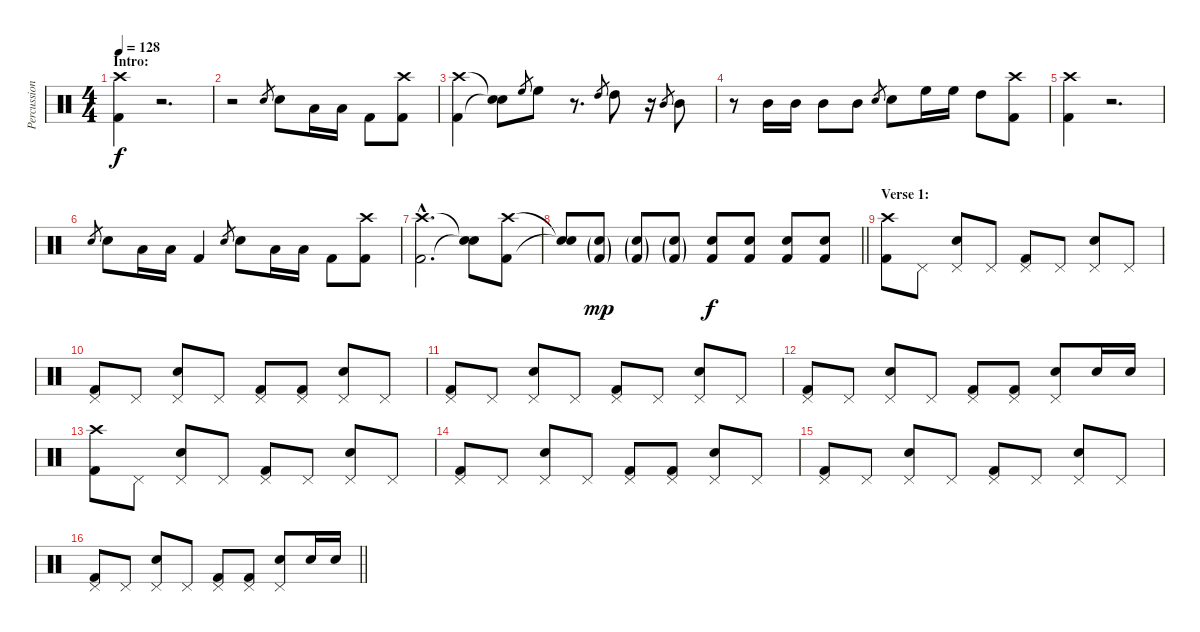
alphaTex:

\track ("Percussion" "Percussion") {instrument percussion}
\staff {score}
\articulation defaults
\ts (4 4)
\section ("" "Intro:")
\tempo 128
\clef neutral
\ks c
("Crash high (hit)" "Kick (hit) 2").4{dy f} r.2{d} |
r.2 "Electric Snare (hit)".8{gr} "Electric Snare (hit)".8 "Low Tom (hit)".16 "Low Tom (hit)".16 "Kick (hit) 2".8 ("Crash high (hit)" "Kick (hit) 2").8 |
("Crash high (hit)" "Kick (hit) 2").4 ("Snare (hit)"{t} "Snare (hit)"{t}).8 "High Floor Tom (hit)".8{gr} "High Floor Tom (hit)".8 r.8{d} "High Tom (hit)".8{gr} "High Tom (hit)".8 r.16 "Mid Tom (hit)".8{gr} "Mid Tom (hit)".8 |
r.8 "Mid Tom (hit)".16 "Mid Tom (hit)".16 "Mid Tom (hit)".8 "Mid Tom (hit)".8 "Electric Snare (hit)".8{gr} "Electric Snare (hit)".8 "High Floor Tom (hit)".16 "High Floor Tom (hit)".16 "High Tom (hit)".8 ("Crash high (hit)" "Kick (hit) 2").8 |
("Crash high (hit)" "Kick (hit) 2").4 r.2{d} |
"Electric Snare (hit)".8{gr} "Electric Snare (hit)".8 "Low Tom (hit)".16 "Low Tom (hit)".16 "Kick (hit) 2".4 "Electric Snare (hit)".8{gr} "Electric Snare (hit)".8 "Low Tom (hit)".16 "Low Tom (hit)".16 "Kick (hit) 2".8 ("Crash high (hit)" "Kick (hit) 2").8 |
("Crash high (hit)"{hac} "Kick (hit) 2"{hac}).2{d} ("Snare (hit)"{t} "Snare (hit)"{t}).8 ("Crash high (hit)" "Kick (hit) 2").8 |
\barLineRight lightlight
("Snare (hit)"{t} "Snare (hit)"{t}).8 ("Electric Snare (hit)"{g} "Kick (hit) 2"{g}).8{dy mp} ("Electric Snare (hit)"{g} "Kick (hit) 2"{g}).8 ("Electric Snare (hit)"{g} "Kick (hit) 2"{g}).8 ("Electric Snare (hit)" "Kick (hit) 2").8{dy f} ("Electric Snare (hit)" "Kick (hit) 2").8 ("Electric Snare (hit)" "Kick (hit) 2").8 ("Electric Snare (hit)" "Kick (hit) 2").8 |
\section ("" "Verse 1:")
("Crash high (hit)" "Kick (hit) 2").8 "Pedal Hi-Hat (hit)".8 ("Pedal Hi-Hat (hit)" "Electric Snare (hit)").8 "Pedal Hi-Hat (hit)".8 ("Pedal Hi-Hat (hit)" "Kick (hit) 2").8 "Pedal Hi-Hat (hit)".8 ("Pedal Hi-Hat (hit)" "Electric Snare (hit)").8 "Pedal Hi-Hat (hit)".8 |
("Pedal Hi-Hat (hit)" "Kick (hit) 2").8 "Pedal Hi-Hat (hit)".8 ("Pedal Hi-Hat (hit)" "Electric Snare (hit)").8 "Pedal Hi-Hat (hit)".8 ("Pedal Hi-Hat (hit)" "Kick (hit) 2").8 ("Pedal Hi-Hat (hit)" "Kick (hit) 2").8 ("Pedal Hi-Hat (hit)" "Electric Snare (hit)").8 "Pedal Hi-Hat (hit)".8 |
("Pedal Hi-Hat (hit)" "Kick (hit) 2").8 "Pedal Hi-Hat (hit)".8 ("Pedal Hi-Hat (hit)" "Electric Snare (hit)").8 "Pedal Hi-Hat (hit)".8 ("Pedal Hi-Hat (hit)" "Kick (hit) 2").8 "Pedal Hi-Hat (hit)".8 ("Pedal Hi-Hat (hit)" "Electric Snare (hit)").8 "Pedal Hi-Hat (hit)".8 |
("Pedal Hi-Hat (hit)" "Kick (hit) 2").8 "Pedal Hi-Hat (hit)".8 ("Pedal Hi-Hat (hit)" "Electric Snare (hit)").8 "Pedal Hi-Hat (hit)".8 ("Pedal Hi-Hat (hit)" "Kick (hit) 2").8 ("Pedal Hi-Hat (hit)" "Kick (hit) 2").8 ("Pedal Hi-Hat (hit)" "Electric Snare (hit)").8 "Electric Snare (hit)".16 "Electric Snare (hit)".16 |
("Crash high (hit)" "Kick (hit) 2").8 "Pedal Hi-Hat (hit)".8 ("Pedal Hi-Hat (hit)" "Electric Snare (hit)").8 "Pedal Hi-Hat (hit)".8 ("Pedal Hi-Hat (hit)" "Kick (hit) 2").8 "Pedal Hi-Hat (hit)".8 ("Pedal Hi-Hat (hit)" "Electric Snare (hit)").8 "Pedal Hi-Hat (hit)".8 |
("Pedal Hi-Hat (hit)" "Kick (hit) 2").8 "Pedal Hi-Hat (hit)".8 ("Pedal Hi-Hat (hit)" "Electric Snare (hit)").8 "Pedal Hi-Hat (hit)".8 ("Pedal Hi-Hat (hit)" "Kick (hit) 2").8 ("Pedal Hi-Hat (hit)" "Kick (hit) 2").8 ("Pedal Hi-Hat (hit)" "Electric Snare (hit)").8 "Pedal Hi-Hat (hit)".8 |
("Pedal Hi-Hat (hit)" "Kick (hit) 2").8 "Pedal Hi-Hat (hit)".8 ("Pedal Hi-Hat (hit)" "Electric Snare (hit)").8 "Pedal Hi-Hat (hit)".8 ("Pedal Hi-Hat (hit)" "Kick (hit) 2").8 "Pedal Hi-Hat (hit)".8 ("Pedal Hi-Hat (hit)" "Electric Snare (hit)").8 "Pedal Hi-Hat (hit)".8 |
\barLineRight lightlight
("Pedal Hi-Hat (hit)" "Kick (hit) 2").8 "Pedal Hi-Hat (hit)".8 ("Pedal Hi-Hat (hit)" "Electric Snare (hit)").8 "Pedal Hi-Hat (hit)".8 ("Pedal Hi-Hat (hit)" "Kick (hit) 2").8 ("Pedal Hi-Hat (hit)" "Kick (hit) 2").8 ("Pedal Hi-Hat (hit)" "Electric Snare (hit)").8 "Electric Snare (hit)".16 "Electric Snare (hit)".16
